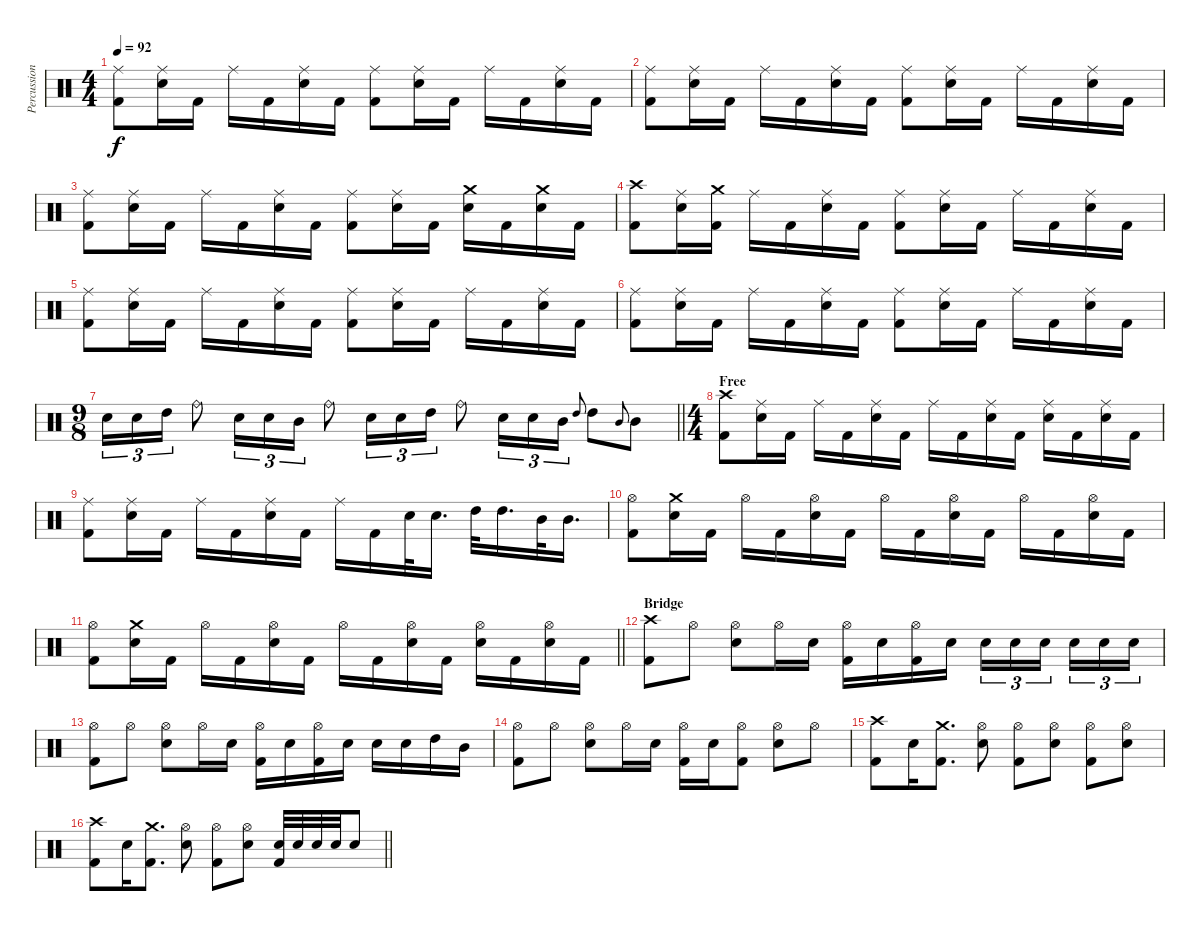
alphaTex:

\track ("Percussion" "Percussion") {instrument percussion}
\staff {score}
\articulation defaults
\ts (4 4)
\tempo 92
\clef neutral
\ks c
("Ride (middle)" "Kick (hit) 2").8{dy f} ("Ride (middle)" "Electric Snare (hit)").16 "Kick (hit) 2".16 "Ride (middle)".16 "Kick (hit) 2".16 ("Ride (middle)" "Electric Snare (hit)").16 "Kick (hit) 2".16 ("Ride (middle)" "Kick (hit) 2").8 ("Ride (middle)" "Electric Snare (hit)").16 "Kick (hit) 2".16 "Ride (middle)".16 "Kick (hit) 2".16 ("Ride (middle)" "Electric Snare (hit)").16 "Kick (hit) 2".16 |
("Ride (middle)" "Kick (hit) 2").8 ("Ride (middle)" "Electric Snare (hit)").16 "Kick (hit) 2".16 "Ride (middle)".16 "Kick (hit) 2".16 ("Ride (middle)" "Electric Snare (hit)").16 "Kick (hit) 2".16 ("Ride (middle)" "Kick (hit) 2").8 ("Ride (middle)" "Electric Snare (hit)").16 "Kick (hit) 2".16 "Ride (middle)".16 "Kick (hit) 2".16 ("Ride (middle)" "Electric Snare (hit)").16 "Kick (hit) 2".16 |
("Ride (middle)" "Kick (hit) 2").8 ("Ride (middle)" "Electric Snare (hit)").16 "Kick (hit) 2".16 "Ride (middle)".16 "Kick (hit) 2".16 ("Ride (middle)" "Electric Snare (hit)").16 "Kick (hit) 2".16 ("Ride (middle)" "Kick (hit) 2").8 ("Ride (middle)" "Electric Snare (hit)").16 "Kick (hit) 2".16 ("Crash medium (hit)" "Electric Snare (hit)").16 "Kick (hit) 2".16 ("Crash medium (hit)" "Electric Snare (hit)").16 "Kick (hit) 2".16 |
("Crash high (hit)" "Kick (hit) 2").8 ("Ride (middle)" "Electric Snare (hit)").16 ("Crash medium (hit)" "Kick (hit) 2").16 "Ride (middle)".16 "Kick (hit) 2".16 ("Ride (middle)" "Electric Snare (hit)").16 "Kick (hit) 2".16 ("Ride (middle)" "Kick (hit) 2").8 ("Ride (middle)" "Electric Snare (hit)").16 "Kick (hit) 2".16 "Ride (middle)".16 "Kick (hit) 2".16 ("Ride (middle)" "Electric Snare (hit)").16 "Kick (hit) 2".16 |
("Ride (middle)" "Kick (hit) 2").8 ("Ride (middle)" "Electric Snare (hit)").16 "Kick (hit) 2".16 "Ride (middle)".16 "Kick (hit) 2".16 ("Ride (middle)" "Electric Snare (hit)").16 "Kick (hit) 2".16 ("Ride (middle)" "Kick (hit) 2").8 ("Ride (middle)" "Electric Snare (hit)").16 "Kick (hit) 2".16 "Ride (middle)".16 "Kick (hit) 2".16 ("Ride (middle)" "Electric Snare (hit)").16 "Kick (hit) 2".16 |
("Ride (middle)" "Kick (hit) 2").8 ("Ride (middle)" "Electric Snare (hit)").16 "Kick (hit) 2".16 "Ride (middle)".16 "Kick (hit) 2".16 ("Ride (middle)" "Electric Snare (hit)").16 "Kick (hit) 2".16 ("Ride (middle)" "Kick (hit) 2").8 ("Ride (middle)" "Electric Snare (hit)").16 "Kick (hit) 2".16 "Ride (middle)".16 "Kick (hit) 2".16 ("Ride (middle)" "Electric Snare (hit)").16 "Kick (hit) 2".16 |
\ts (9 8)
\barLineRight lightlight "Electric Snare (hit)".16{tu (3 2)} "Electric Snare (hit)".16{tu (3 2)} "High Tom (hit)".16{tu (3 2)} "Ride (bell)".8 "Electric Snare (hit)".16{tu (3 2)} "Electric Snare (hit)".16{tu (3 2)} "Mid Tom (hit)".16{tu (3 2)} "Ride (bell)".8 "Electric Snare (hit)".16{tu (3 2)} "Electric Snare (hit)".16{tu (3 2)} "High Tom (hit)".16{tu (3 2)} "Ride (bell)".8 "Electric Snare (hit)".16{tu (3 2)} "Electric Snare (hit)".16{tu (3 2)} "Mid Tom (hit)".16{tu (3 2)} "High Tom (hit)".8{gr onbeat} "High Tom (hit)".8 "Mid Tom (hit)".8{gr onbeat} "Mid Tom (hit)".8
|
\ts (4 4)
\section ("" "Free")
("Crash high (hit)" "Kick (hit) 2").8 ("Ride (middle)" "Electric Snare (hit)").16 "Kick (hit) 2".16 "Ride (middle)".16 "Kick (hit) 2".16 ("Ride (middle)" "Electric Snare (hit)").16 "Kick (hit) 2".16 "Ride (middle)".16 "Kick (hit) 2".16 ("Ride (middle)" "Electric Snare (hit)").16 "Kick (hit) 2".16 ("Ride (middle)" "Electric Snare (hit)").16 "Kick (hit) 2".16 ("Ride (middle)" "Electric Snare (hit)").16 "Kick (hit) 2".16 |
("Ride (middle)" "Kick (hit) 2").8 ("Ride (middle)" "Electric Snare (hit)").16 "Kick (hit) 2".16 "Ride (middle)".16 "Kick (hit) 2".16 ("Ride (middle)" "Electric Snare (hit)").16 "Kick (hit) 2".16 "Ride (middle)".16 "Kick (hit) 2".16 "Electric Snare (hit)".32 "Electric Snare (hit)".16{d} "High Tom (hit)".32 "High Tom (hit)".16{d} "Mid Tom (hit)".32 "Mid Tom (hit)".16{d} |
("Hi-Hat (open)" "Kick (hit) 2").8 ("Crash medium (hit)" "Electric Snare (hit)").16 "Kick (hit) 2".16 "Hi-Hat (open)".16 "Kick (hit) 2".16 ("Hi-Hat (open)" "Electric Snare (hit)").16 "Kick (hit) 2".16 "Hi-Hat (open)".16 "Kick (hit) 2".16 ("Hi-Hat (open)" "Electric Snare (hit)").16 "Kick (hit) 2".16 "Hi-Hat (open)".16 "Kick (hit) 2".16 ("Hi-Hat (open)" "Electric Snare (hit)").16 "Kick (hit) 2".16 |
\barLineRight lightlight
("Hi-Hat (open)" "Kick (hit) 2").8 ("Crash medium (hit)" "Electric Snare (hit)").16 "Kick (hit) 2".16 "Hi-Hat (open)".16 "Kick (hit) 2".16 ("Hi-Hat (open)" "Electric Snare (hit)").16 "Kick (hit) 2".16 "Hi-Hat (open)".16 "Kick (hit) 2".16 ("Hi-Hat (open)" "Electric Snare (hit)").16 "Kick (hit) 2".16 ("Hi-Hat (open)" "Electric Snare (hit)").16 "Kick (hit) 2".16 ("Hi-Hat (open)" "Electric Snare (hit)").16 "Kick (hit) 2".16 |
\section ("" "Bridge")
("Crash high (hit)" "Kick (hit) 2").8 "Hi-Hat (open)".8 ("Hi-Hat (open)" "Electric Snare (hit)").8 "Hi-Hat (open)".16 "Electric Snare (hit)".16 ("Hi-Hat (open)" "Kick (hit) 2").16 "Electric Snare (hit)".16 ("Hi-Hat (open)" "Kick (hit) 2").16 "Electric Snare (hit)".16 "Electric Snare (hit)".16{tu (3 2)} "Electric Snare (hit)".16{tu (3 2)} "Electric Snare (hit)".16{tu (3 2) beam splitsecondary} "Electric Snare (hit)".16{tu (3 2)} "Electric Snare (hit)".16{tu (3 2)} "Electric Snare (hit)".16{tu (3 2)} |
("Hi-Hat (open)" "Kick (hit) 2").8 "Hi-Hat (open)".8 ("Hi-Hat (open)" "Electric Snare (hit)").8 "Hi-Hat (open)".16 "Electric Snare (hit)".16 ("Hi-Hat (open)" "Kick (hit) 2").16 "Electric Snare (hit)".16 ("Hi-Hat (open)" "Kick (hit) 2").16 "Electric Snare (hit)".16 "Electric Snare (hit)".16 "Electric Snare (hit)".16 "High Tom (hit)".16 "Mid Tom (hit)".16 |
("Hi-Hat (open)" "Kick (hit) 2").8 "Hi-Hat (open)".8 ("Hi-Hat (open)" "Electric Snare (hit)").8 "Hi-Hat (open)".16 "Electric Snare (hit)".16 ("Hi-Hat (open)" "Kick (hit) 2").16 "Electric Snare (hit)".16 ("Hi-Hat (open)" "Kick (hit) 2").8 ("Hi-Hat (open)" "Electric Snare (hit)").8 "Hi-Hat (open)".8 |
("Crash high (hit)" "Kick (hit) 2").8 "Electric Snare (hit)".16 ("Crash medium (hit)" "Kick (hit) 2").8{d} ("Hi-Hat (open)" "Electric Snare (hit)").8 ("Hi-Hat (open)" "Kick (hit) 2").8 ("Hi-Hat (open)" "Electric Snare (hit)").8 ("Hi-Hat (open)" "Kick (hit) 2").8 ("Hi-Hat (open)" "Electric Snare (hit)").8 |
\barLineRight lightlight
("Crash high (hit)" "Kick (hit) 2").8 "Electric Snare (hit)".16 ("Crash medium (hit)" "Kick (hit) 2").8{d} ("Hi-Hat (open)" "Electric Snare (hit)").8 ("Hi-Hat (open)" "Kick (hit) 2").8 ("Hi-Hat (open)" "Electric Snare (hit)").8 ("Electric Snare (hit)" "Kick (hit) 2").32 "Electric Snare (hit)".32 "Electric Snare (hit)".32 "Electric Snare (hit)".32 "Electric Snare (hit)".8
